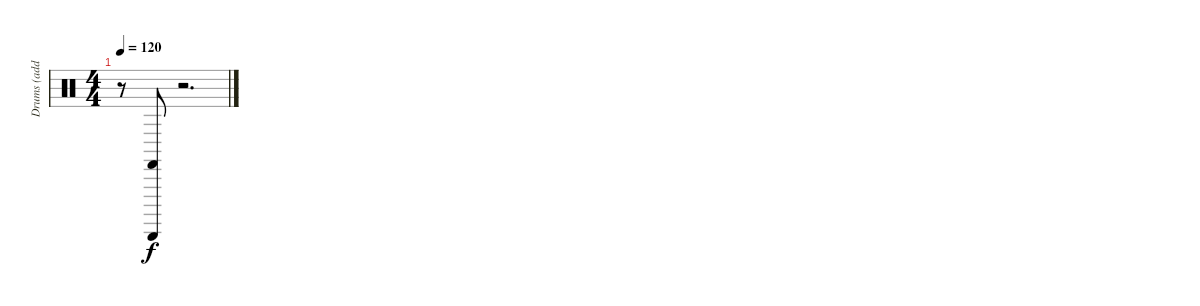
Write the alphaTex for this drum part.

\track ("Drums (additional 2)" "Drums (add") {instrument percussion}
\staff {score}
\articulation defaults
\ts (4 4)
\tempo 120
\clef neutral
\ks c
r.8{dy f} ("Guiro (scrap-return)" "Castanets (hit)").8 r.2{d}
